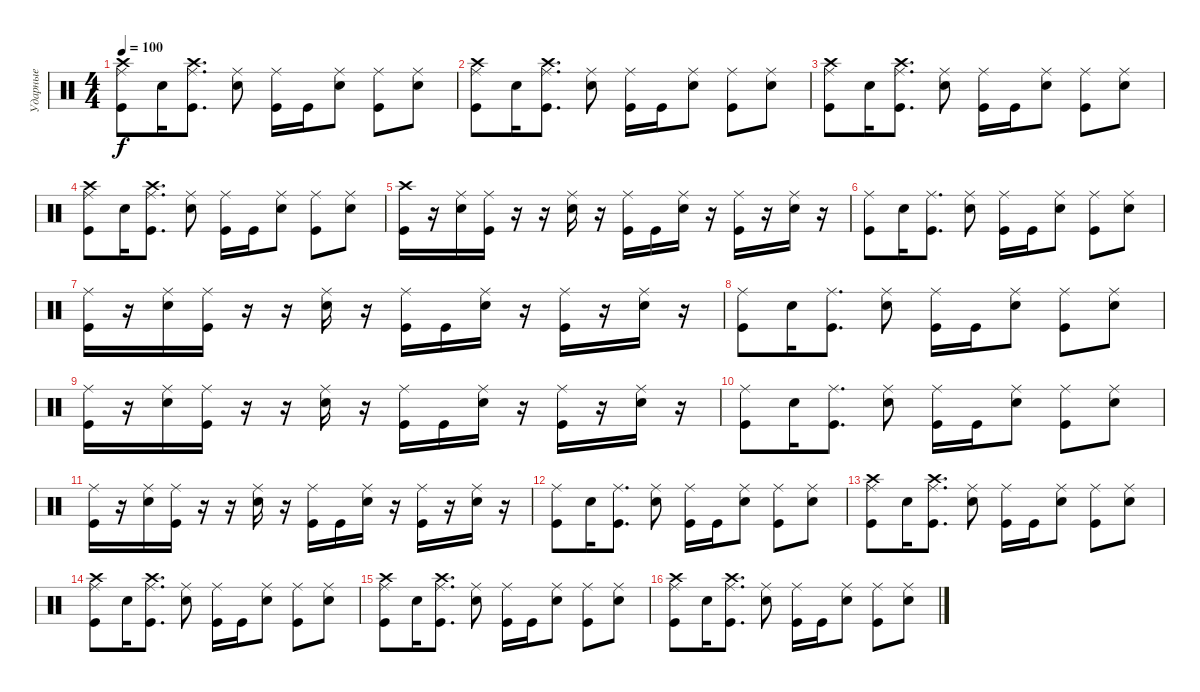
\track ("Ударные" "Ударные") {instrument percussion}
\staff {score}
\articulation defaults
\ts (4 4)
\tempo 100
\clef neutral
\ks c
("Kick (hit)" "Ride (middle)" "Crash high (hit)").8{dy f} "Snare (hit) 2".16 ("Kick (hit)" "Ride (middle)" "Crash high (hit)").8{d} ("Snare (hit) 2" "Ride (middle)").8 ("Kick (hit)" "Ride (middle)").16 "Kick (hit)".16 ("Snare (hit) 2" "Ride (middle)").8 ("Kick (hit)" "Ride (middle)").8 ("Snare (hit) 2" "Ride (middle)").8 |
("Kick (hit)" "Ride (middle)" "Crash high (hit)").8 "Snare (hit) 2".16 ("Kick (hit)" "Ride (middle)" "Crash high (hit)").8{d} ("Snare (hit) 2" "Ride (middle)").8 ("Kick (hit)" "Ride (middle)").16 "Kick (hit)".16 ("Snare (hit) 2" "Ride (middle)").8 ("Kick (hit)" "Ride (middle)").8 ("Snare (hit) 2" "Ride (middle)").8 |
("Kick (hit)" "Ride (middle)" "Crash high (hit)").8 "Snare (hit) 2".16 ("Kick (hit)" "Ride (middle)" "Crash high (hit)").8{d} ("Snare (hit) 2" "Ride (middle)").8 ("Kick (hit)" "Ride (middle)").16 "Kick (hit)".16 ("Snare (hit) 2" "Ride (middle)").8 ("Kick (hit)" "Ride (middle)").8 ("Snare (hit) 2" "Ride (middle)").8 |
("Kick (hit)" "Ride (middle)" "Crash high (hit)").8 "Snare (hit) 2".16 ("Kick (hit)" "Ride (middle)" "Crash high (hit)").8{d} ("Snare (hit) 2" "Ride (middle)").8 ("Kick (hit)" "Ride (middle)").16 "Kick (hit)".16 ("Snare (hit) 2" "Ride (middle)").8 ("Kick (hit)" "Ride (middle)").8 ("Snare (hit) 2" "Ride (middle)").8 |
("Kick (hit)" "Crash high (hit)").16 r.16 ("Electric Snare (hit)" "Ride (middle)").16 ("Kick (hit)" "Ride (middle)").16 r.16 r.16 ("Electric Snare (hit)" "Ride (middle)").16 r.16 ("Kick (hit)" "Ride (middle)").16 "Kick (hit)".16 ("Electric Snare (hit)" "Ride (middle)").16 r.16 ("Kick (hit)" "Ride (middle)").16 r.16 ("Electric Snare (hit)" "Ride (middle)").16 r.16 |
("Kick (hit)" "Ride (middle)").8 "Snare (hit) 2".16 ("Kick (hit)" "Ride (middle)").8{d} ("Snare (hit) 2" "Ride (middle)").8 ("Kick (hit)" "Ride (middle)").16 "Kick (hit)".16 ("Snare (hit) 2" "Ride (middle)").8 ("Kick (hit)" "Ride (middle)").8 ("Snare (hit) 2" "Ride (middle)").8 |
("Kick (hit)" "Ride (middle)").16 r.16 ("Electric Snare (hit)" "Ride (middle)").16 ("Kick (hit)" "Ride (middle)").16 r.16 r.16 ("Electric Snare (hit)" "Ride (middle)").16 r.16 ("Kick (hit)" "Ride (middle)").16 "Kick (hit)".16 ("Electric Snare (hit)" "Ride (middle)").16 r.16 ("Kick (hit)" "Ride (middle)").16 r.16 ("Electric Snare (hit)" "Ride (middle)").16 r.16 |
("Kick (hit)" "Ride (middle)").8 "Snare (hit) 2".16 ("Kick (hit)" "Ride (middle)").8{d} ("Snare (hit) 2" "Ride (middle)").8 ("Kick (hit)" "Ride (middle)").16 "Kick (hit)".16 ("Snare (hit) 2" "Ride (middle)").8 ("Kick (hit)" "Ride (middle)").8 ("Snare (hit) 2" "Ride (middle)").8 |
("Kick (hit)" "Ride (middle)").16 r.16 ("Electric Snare (hit)" "Ride (middle)").16 ("Kick (hit)" "Ride (middle)").16 r.16 r.16 ("Electric Snare (hit)" "Ride (middle)").16 r.16 ("Kick (hit)" "Ride (middle)").16 "Kick (hit)".16 ("Electric Snare (hit)" "Ride (middle)").16 r.16 ("Kick (hit)" "Ride (middle)").16 r.16 ("Electric Snare (hit)" "Ride (middle)").16 r.16 |
("Kick (hit)" "Ride (middle)").8 "Snare (hit) 2".16 ("Kick (hit)" "Ride (middle)").8{d} ("Snare (hit) 2" "Ride (middle)").8 ("Kick (hit)" "Ride (middle)").16 "Kick (hit)".16 ("Snare (hit) 2" "Ride (middle)").8 ("Kick (hit)" "Ride (middle)").8 ("Snare (hit) 2" "Ride (middle)").8 |
("Kick (hit)" "Ride (middle)").16 r.16 ("Electric Snare (hit)" "Ride (middle)").16 ("Kick (hit)" "Ride (middle)").16 r.16 r.16 ("Electric Snare (hit)" "Ride (middle)").16 r.16 ("Kick (hit)" "Ride (middle)").16 "Kick (hit)".16 ("Electric Snare (hit)" "Ride (middle)").16 r.16 ("Kick (hit)" "Ride (middle)").16 r.16 ("Electric Snare (hit)" "Ride (middle)").16 r.16 |
("Kick (hit)" "Ride (middle)").8 "Snare (hit) 2".16 ("Kick (hit)" "Ride (middle)").8{d} ("Snare (hit) 2" "Ride (middle)").8 ("Kick (hit)" "Ride (middle)").16 "Kick (hit)".16 ("Snare (hit) 2" "Ride (middle)").8 ("Kick (hit)" "Ride (middle)").8 ("Snare (hit) 2" "Ride (middle)").8 |
("Kick (hit)" "Ride (middle)" "Crash high (hit)").8 "Snare (hit) 2".16 ("Kick (hit)" "Ride (middle)" "Crash high (hit)").8{d} ("Snare (hit) 2" "Ride (middle)").8 ("Kick (hit)" "Ride (middle)").16 "Kick (hit)".16 ("Snare (hit) 2" "Ride (middle)").8 ("Kick (hit)" "Ride (middle)").8 ("Snare (hit) 2" "Ride (middle)").8 |
("Kick (hit)" "Ride (middle)" "Crash high (hit)").8 "Snare (hit) 2".16 ("Kick (hit)" "Ride (middle)" "Crash high (hit)").8{d} ("Snare (hit) 2" "Ride (middle)").8 ("Kick (hit)" "Ride (middle)").16 "Kick (hit)".16 ("Snare (hit) 2" "Ride (middle)").8 ("Kick (hit)" "Ride (middle)").8 ("Snare (hit) 2" "Ride (middle)").8 |
("Kick (hit)" "Ride (middle)" "Crash high (hit)").8 "Snare (hit) 2".16 ("Kick (hit)" "Ride (middle)" "Crash high (hit)").8{d} ("Snare (hit) 2" "Ride (middle)").8 ("Kick (hit)" "Ride (middle)").16 "Kick (hit)".16 ("Snare (hit) 2" "Ride (middle)").8 ("Kick (hit)" "Ride (middle)").8 ("Snare (hit) 2" "Ride (middle)").8 |
("Kick (hit)" "Ride (middle)" "Crash high (hit)").8 "Snare (hit) 2".16 ("Kick (hit)" "Ride (middle)" "Crash high (hit)").8{d} ("Snare (hit) 2" "Ride (middle)").8 ("Kick (hit)" "Ride (middle)").16 "Kick (hit)".16 ("Snare (hit) 2" "Ride (middle)").8 ("Kick (hit)" "Ride (middle)").8 ("Snare (hit) 2" "Ride (middle)").8
